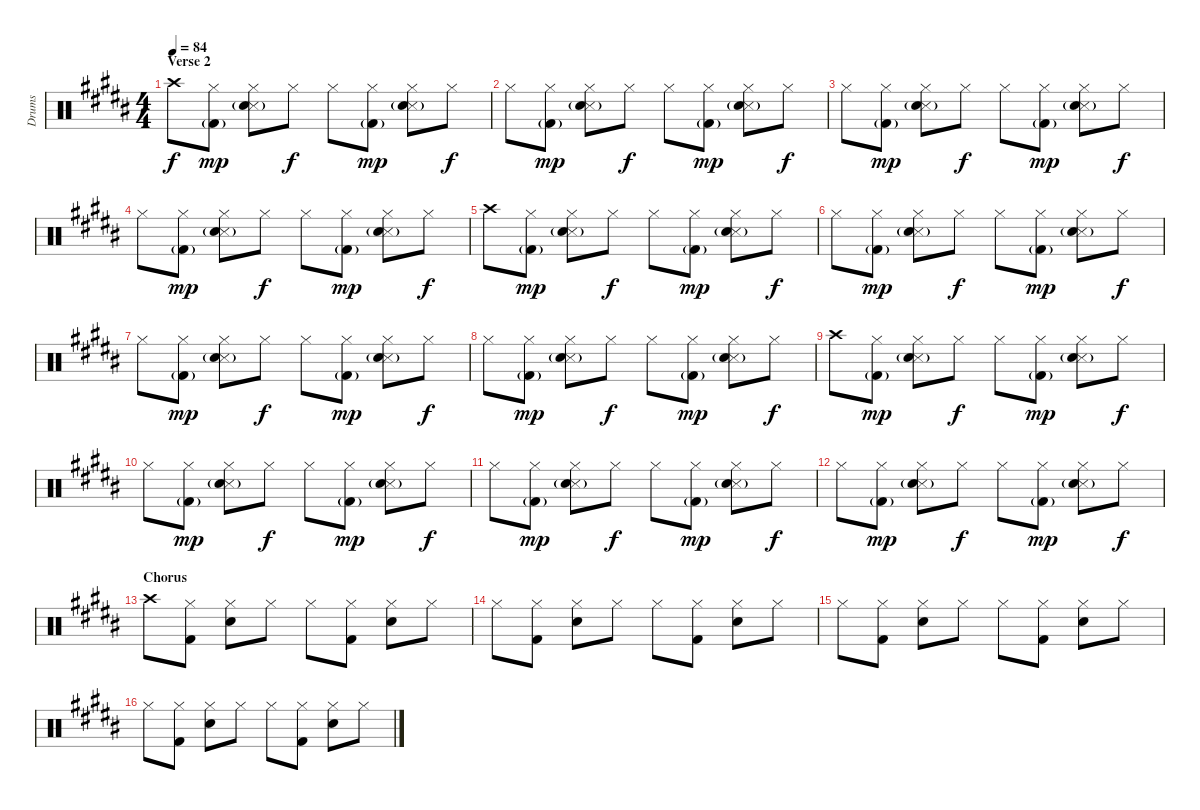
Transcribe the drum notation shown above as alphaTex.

\track ("Drums" "Drums") {instrument percussion}
\staff {score}
\articulation defaults
\ts (4 4)
\section ("" "Verse 2")
\tempo 84
\clef neutral
\ks b "Crash high (hit)".8{dy f}
("Hi-Hat (closed)" "Kick (hit) 2"{g}).8{dy mp} ("Hi-Hat (closed)" "Snare (side stick) 3"{g} "Snare (hit) 2"{g}).8 "Hi-Hat (closed)".8{dy f} "Hi-Hat (closed)".8 ("Hi-Hat (closed)" "Kick (hit) 2"{g}).8{dy mp} ("Hi-Hat (closed)" "Snare (side stick) 3"{g} "Snare (hit) 2"{g}).8 "Hi-Hat (closed)".8{dy f} |
"Hi-Hat (closed)".8 ("Hi-Hat (closed)" "Kick (hit) 2"{g}).8{dy mp} ("Hi-Hat (closed)" "Snare (side stick) 3"{g} "Snare (hit) 2"{g}).8 "Hi-Hat (closed)".8{dy f} "Hi-Hat (closed)".8 ("Hi-Hat (closed)" "Kick (hit) 2"{g}).8{dy mp} ("Hi-Hat (closed)" "Snare (side stick) 3"{g} "Snare (hit) 2"{g}).8 "Hi-Hat (closed)".8{dy f} |
"Hi-Hat (closed)".8 ("Hi-Hat (closed)" "Kick (hit) 2"{g}).8{dy mp} ("Hi-Hat (closed)" "Snare (side stick) 3"{g} "Snare (hit) 2"{g}).8 "Hi-Hat (closed)".8{dy f} "Hi-Hat (closed)".8 ("Hi-Hat (closed)" "Kick (hit) 2"{g}).8{dy mp} ("Hi-Hat (closed)" "Snare (side stick) 3"{g} "Snare (hit) 2"{g}).8 "Hi-Hat (closed)".8{dy f} |
"Hi-Hat (closed)".8 ("Hi-Hat (closed)" "Kick (hit) 2"{g}).8{dy mp} ("Hi-Hat (closed)" "Snare (side stick) 3"{g} "Snare (hit) 2"{g}).8 "Hi-Hat (closed)".8{dy f} "Hi-Hat (closed)".8 ("Hi-Hat (closed)" "Kick (hit) 2"{g}).8{dy mp} ("Hi-Hat (closed)" "Snare (side stick) 3"{g} "Snare (hit) 2"{g}).8 "Hi-Hat (closed)".8{dy f} |
"Crash high (hit)".8 ("Hi-Hat (closed)" "Kick (hit) 2"{g}).8{dy mp} ("Hi-Hat (closed)" "Snare (side stick) 3"{g} "Snare (hit) 2"{g}).8 "Hi-Hat (closed)".8{dy f} "Hi-Hat (closed)".8 ("Hi-Hat (closed)" "Kick (hit) 2"{g}).8{dy mp} ("Hi-Hat (closed)" "Snare (side stick) 3"{g} "Snare (hit) 2"{g}).8 "Hi-Hat (closed)".8{dy f} |
"Hi-Hat (closed)".8 ("Hi-Hat (closed)" "Kick (hit) 2"{g}).8{dy mp} ("Hi-Hat (closed)" "Snare (side stick) 3"{g} "Snare (hit) 2"{g}).8 "Hi-Hat (closed)".8{dy f} "Hi-Hat (closed)".8 ("Hi-Hat (closed)" "Kick (hit) 2"{g}).8{dy mp} ("Hi-Hat (closed)" "Snare (side stick) 3"{g} "Snare (hit) 2"{g}).8 "Hi-Hat (closed)".8{dy f} |
"Hi-Hat (closed)".8 ("Hi-Hat (closed)" "Kick (hit) 2"{g}).8{dy mp} ("Hi-Hat (closed)" "Snare (side stick) 3"{g} "Snare (hit) 2"{g}).8 "Hi-Hat (closed)".8{dy f} "Hi-Hat (closed)".8 ("Hi-Hat (closed)" "Kick (hit) 2"{g}).8{dy mp} ("Hi-Hat (closed)" "Snare (side stick) 3"{g} "Snare (hit) 2"{g}).8 "Hi-Hat (closed)".8{dy f} |
"Hi-Hat (closed)".8 ("Hi-Hat (closed)" "Kick (hit) 2"{g}).8{dy mp} ("Hi-Hat (closed)" "Snare (side stick) 3"{g} "Snare (hit) 2"{g}).8 "Hi-Hat (closed)".8{dy f} "Hi-Hat (closed)".8 ("Hi-Hat (closed)" "Kick (hit) 2"{g}).8{dy mp} ("Hi-Hat (closed)" "Snare (side stick) 3"{g} "Snare (hit) 2"{g}).8 "Hi-Hat (closed)".8{dy f} |
"Crash high (hit)".8 ("Hi-Hat (closed)" "Kick (hit) 2"{g}).8{dy mp} ("Hi-Hat (closed)" "Snare (side stick) 3"{g} "Snare (hit) 2"{g}).8 "Hi-Hat (closed)".8{dy f} "Hi-Hat (closed)".8 ("Hi-Hat (closed)" "Kick (hit) 2"{g}).8{dy mp} ("Hi-Hat (closed)" "Snare (side stick) 3"{g} "Snare (hit) 2"{g}).8 "Hi-Hat (closed)".8{dy f} |
"Hi-Hat (closed)".8 ("Hi-Hat (closed)" "Kick (hit) 2"{g}).8{dy mp} ("Hi-Hat (closed)" "Snare (side stick) 3"{g} "Snare (hit) 2"{g}).8 "Hi-Hat (closed)".8{dy f} "Hi-Hat (closed)".8 ("Hi-Hat (closed)" "Kick (hit) 2"{g}).8{dy mp} ("Hi-Hat (closed)" "Snare (side stick) 3"{g} "Snare (hit) 2"{g}).8 "Hi-Hat (closed)".8{dy f} |
"Hi-Hat (closed)".8 ("Hi-Hat (closed)" "Kick (hit) 2"{g}).8{dy mp} ("Hi-Hat (closed)" "Snare (side stick) 3"{g} "Snare (hit) 2"{g}).8 "Hi-Hat (closed)".8{dy f} "Hi-Hat (closed)".8 ("Hi-Hat (closed)" "Kick (hit) 2"{g}).8{dy mp} ("Hi-Hat (closed)" "Snare (side stick) 3"{g} "Snare (hit) 2"{g}).8 "Hi-Hat (closed)".8{dy f} |
"Hi-Hat (closed)".8 ("Hi-Hat (closed)" "Kick (hit) 2"{g}).8{dy mp} ("Hi-Hat (closed)" "Snare (side stick) 3"{g} "Snare (hit) 2"{g}).8 "Hi-Hat (closed)".8{dy f} "Hi-Hat (closed)".8 ("Hi-Hat (closed)" "Kick (hit) 2"{g}).8{dy mp} ("Hi-Hat (closed)" "Snare (side stick) 3"{g} "Snare (hit) 2"{g}).8 "Hi-Hat (closed)".8{dy f} |
\section ("" "Chorus")
"Crash high (hit)".8 ("Hi-Hat (closed)" "Kick (hit) 2").8 ("Hi-Hat (closed)" "Snare (hit) 2").8 "Hi-Hat (closed)".8 "Hi-Hat (closed)".8 ("Hi-Hat (closed)" "Kick (hit) 2").8 ("Hi-Hat (closed)" "Snare (hit) 2").8 "Hi-Hat (closed)".8 |
"Hi-Hat (closed)".8 ("Hi-Hat (closed)" "Kick (hit) 2").8 ("Hi-Hat (closed)" "Snare (hit) 2").8 "Hi-Hat (closed)".8 "Hi-Hat (closed)".8 ("Hi-Hat (closed)" "Kick (hit) 2").8 ("Hi-Hat (closed)" "Snare (hit) 2").8 "Hi-Hat (closed)".8 |
"Hi-Hat (closed)".8 ("Hi-Hat (closed)" "Kick (hit) 2").8 ("Hi-Hat (closed)" "Snare (hit) 2").8 "Hi-Hat (closed)".8 "Hi-Hat (closed)".8 ("Hi-Hat (closed)" "Kick (hit) 2").8 ("Hi-Hat (closed)" "Snare (hit) 2").8 "Hi-Hat (closed)".8 |
"Hi-Hat (closed)".8 ("Hi-Hat (closed)" "Kick (hit) 2").8 ("Hi-Hat (closed)" "Snare (hit) 2").8 "Hi-Hat (closed)".8 "Hi-Hat (closed)".8 ("Hi-Hat (closed)" "Kick (hit) 2").8 ("Hi-Hat (closed)" "Snare (hit) 2").8 "Hi-Hat (closed)".8
